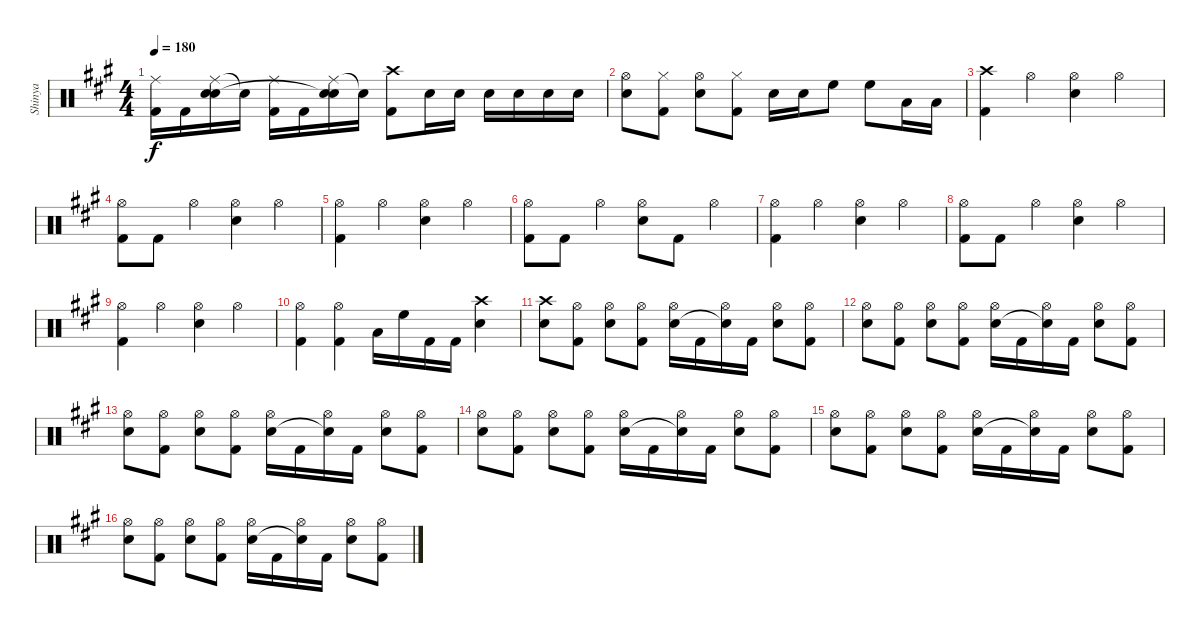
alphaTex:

\track ("Shinya" "Shinya") {instrument percussion}
\staff {score}
\articulation defaults
\ts (4 4)
\tempo 180
\clef neutral
\ks a
("Ride (middle)" "Kick (hit) 2").16{dy f} "Kick (hit) 2".16 ("Ride (middle)" "Electric Snare (hit)" "Snare (hit)"{t}).16 "Snare (hit)"{t}.16 ("Ride (middle)" "Kick (hit) 2").16 "Kick (hit) 2".16 ("Ride (middle)" "Electric Snare (hit)" "Snare (hit)"{t}).16 "Snare (hit)"{t}.16 ("Crash high (hit)" "Kick (hit) 2").8 "Electric Snare (hit)".16 "Electric Snare (hit)".16 "Electric Snare (hit)".16 "Electric Snare (hit)".16 "Electric Snare (hit)".16 "Electric Snare (hit)".16 |
("Hi-Hat (open)" "Electric Snare (hit)").8 ("Hi-Hat (closed)" "Kick (hit) 2").8 ("Hi-Hat (open)" "Electric Snare (hit)").8 ("Hi-Hat (closed)" "Kick (hit) 2").8 "Electric Snare (hit)".16 "Electric Snare (hit)".16 "High Floor Tom (hit)".8 "High Floor Tom (hit)".8 "Low Tom (hit)".16 "Low Tom (hit)".16 |
("Crash high (hit)" "Kick (hit) 2").4 "Hi-Hat (open)".4 ("Hi-Hat (open)" "Electric Snare (hit)").4 "Hi-Hat (open)".4 |
("Hi-Hat (open)" "Kick (hit) 2").8 "Kick (hit) 2".8 "Hi-Hat (open)".4 ("Hi-Hat (open)" "Electric Snare (hit)").4 "Hi-Hat (open)".4 |
("Hi-Hat (open)" "Kick (hit) 2").4 "Hi-Hat (open)".4 ("Hi-Hat (open)" "Electric Snare (hit)").4 "Hi-Hat (open)".4 |
("Hi-Hat (open)" "Kick (hit) 2").8 "Kick (hit) 2".8 "Hi-Hat (open)".4 ("Hi-Hat (open)" "Electric Snare (hit)").8 "Kick (hit) 2".8 "Hi-Hat (open)".4 |
("Hi-Hat (open)" "Kick (hit) 2").4 "Hi-Hat (open)".4 ("Hi-Hat (open)" "Electric Snare (hit)").4 "Hi-Hat (open)".4 |
("Hi-Hat (open)" "Kick (hit) 2").8 "Kick (hit) 2".8 "Hi-Hat (open)".4 ("Hi-Hat (open)" "Electric Snare (hit)").4 "Hi-Hat (open)".4 |
("Hi-Hat (open)" "Kick (hit) 2").4 "Hi-Hat (open)".4 ("Hi-Hat (open)" "Electric Snare (hit)").4 "Hi-Hat (open)".4 |
("Hi-Hat (open)" "Kick (hit) 2").4 ("Hi-Hat (open)" "Kick (hit) 2").4 "Low Floor Tom (hit)".16 "High Floor Tom (hit)".16 "Kick (hit) 2".16 "Kick (hit) 2".16 ("Crash high (hit)" "Electric Snare (hit)").4 |
("Crash high (hit)" "Electric Snare (hit)").8 ("Hi-Hat (open)" "Kick (hit) 2").8 ("Hi-Hat (open)" "Electric Snare (hit)").8 ("Hi-Hat (open)" "Kick (hit) 2").8 ("Hi-Hat (open)" "Electric Snare (hit)").16 "Kick (hit) 2".16 ("Hi-Hat (open)" "Snare (hit)"{t}).16 "Kick (hit) 2".16 ("Hi-Hat (open)" "Electric Snare (hit)").8 ("Hi-Hat (open)" "Kick (hit) 2").8 |
("Hi-Hat (open)" "Electric Snare (hit)").8 ("Hi-Hat (open)" "Kick (hit) 2").8 ("Hi-Hat (open)" "Electric Snare (hit)").8 ("Hi-Hat (open)" "Kick (hit) 2").8 ("Hi-Hat (open)" "Electric Snare (hit)").16 "Kick (hit) 2".16 ("Hi-Hat (open)" "Snare (hit)"{t}).16 "Kick (hit) 2".16 ("Hi-Hat (open)" "Electric Snare (hit)").8 ("Hi-Hat (open)" "Kick (hit) 2").8 |
("Hi-Hat (open)" "Electric Snare (hit)").8 ("Hi-Hat (open)" "Kick (hit) 2").8 ("Hi-Hat (open)" "Electric Snare (hit)").8 ("Hi-Hat (open)" "Kick (hit) 2").8 ("Hi-Hat (open)" "Electric Snare (hit)").16 "Kick (hit) 2".16 ("Hi-Hat (open)" "Snare (hit)"{t}).16 "Kick (hit) 2".16 ("Hi-Hat (open)" "Electric Snare (hit)").8 ("Hi-Hat (open)" "Kick (hit) 2").8 |
("Hi-Hat (open)" "Electric Snare (hit)").8 ("Hi-Hat (open)" "Kick (hit) 2").8 ("Hi-Hat (open)" "Electric Snare (hit)").8 ("Hi-Hat (open)" "Kick (hit) 2").8 ("Hi-Hat (open)" "Electric Snare (hit)").16 "Kick (hit) 2".16 ("Hi-Hat (open)" "Snare (hit)"{t}).16 "Kick (hit) 2".16 ("Hi-Hat (open)" "Electric Snare (hit)").8 ("Hi-Hat (open)" "Kick (hit) 2").8 |
("Hi-Hat (open)" "Electric Snare (hit)").8 ("Hi-Hat (open)" "Kick (hit) 2").8 ("Hi-Hat (open)" "Electric Snare (hit)").8 ("Hi-Hat (open)" "Kick (hit) 2").8 ("Hi-Hat (open)" "Electric Snare (hit)").16 "Kick (hit) 2".16 ("Hi-Hat (open)" "Snare (hit)"{t}).16 "Kick (hit) 2".16 ("Hi-Hat (open)" "Electric Snare (hit)").8 ("Hi-Hat (open)" "Kick (hit) 2").8 |
("Hi-Hat (open)" "Electric Snare (hit)").8 ("Hi-Hat (open)" "Kick (hit) 2").8 ("Hi-Hat (open)" "Electric Snare (hit)").8 ("Hi-Hat (open)" "Kick (hit) 2").8 ("Hi-Hat (open)" "Electric Snare (hit)").16 "Kick (hit) 2".16 ("Hi-Hat (open)" "Snare (hit)"{t}).16 "Kick (hit) 2".16 ("Hi-Hat (open)" "Electric Snare (hit)").8 ("Hi-Hat (open)" "Kick (hit) 2").8
